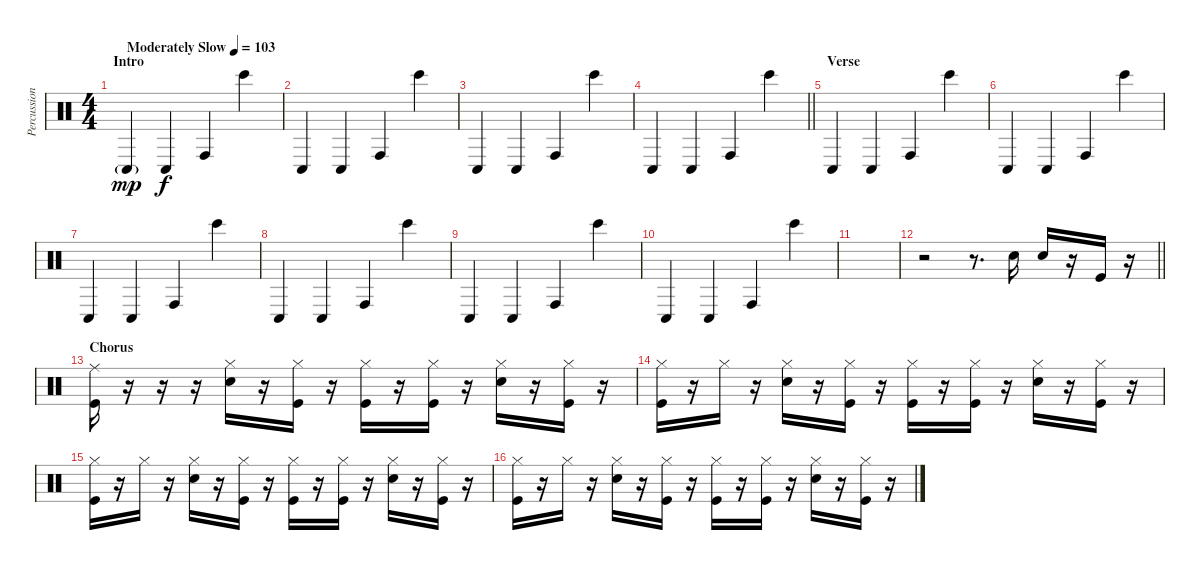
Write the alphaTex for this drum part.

\track ("Percussion" "Percussion") {instrument percussion}
\staff {score}
\articulation defaults
\ts (4 4)
\section ("" "Intro")
\tempo (103 "Moderately Slow")
\clef neutral
\ks c "Conga low (hit)"{g}.4{dy mp} "Conga low (hit)".4{dy f} "Conga high (hit)".4 "Bongo High (hit)".4
|
"Conga low (hit)".4 "Conga low (hit)".4 "Conga high (hit)".4 "Bongo High (hit)".4 |
"Conga low (hit)".4 "Conga low (hit)".4 "Conga high (hit)".4 "Bongo High (hit)".4 |
\barLineRight lightlight "Conga low (hit)".4 "Conga low (hit)".4 "Conga high (hit)".4 "Bongo High (hit)".4
|
\section ("" "Verse")
"Conga low (hit)".4 "Conga low (hit)".4 "Conga high (hit)".4 "Bongo High (hit)".4 |
"Conga low (hit)".4 "Conga low (hit)".4 "Conga high (hit)".4 "Bongo High (hit)".4 |
"Conga low (hit)".4 "Conga low (hit)".4 "Conga high (hit)".4 "Bongo High (hit)".4 |
"Conga low (hit)".4 "Conga low (hit)".4 "Conga high (hit)".4 "Bongo High (hit)".4 |
"Conga low (hit)".4 "Conga low (hit)".4 "Conga high (hit)".4 "Bongo High (hit)".4 |
"Conga low (hit)".4 "Conga low (hit)".4 "Conga high (hit)".4 "Bongo High (hit)".4 |
|
\barLineRight lightlight
r.2 r.8{d} "Snare (hit) 2".16 "Snare (hit) 2".16 r.16 "Kick (hit)".16 r.16 |
\section ("" "Chorus")
("Ride (middle)" "Kick (hit)").16 r.16 r.16 r.16 ("Hi-Hat (closed)" "Snare (hit) 2").16 r.16 ("Hi-Hat (closed)" "Kick (hit)").16 r.16 ("Hi-Hat (closed)" "Kick (hit)").16 r.16 ("Hi-Hat (closed)" "Kick (hit)").16 r.16 ("Hi-Hat (closed)" "Snare (hit) 2").16 r.16 ("Hi-Hat (closed)" "Kick (hit)").16 r.16 |
("Hi-Hat (closed)" "Kick (hit)").16 r.16 "Hi-Hat (closed)".16 r.16 ("Hi-Hat (closed)" "Snare (hit) 2").16 r.16 ("Hi-Hat (closed)" "Kick (hit)").16 r.16 ("Hi-Hat (closed)" "Kick (hit)").16 r.16 ("Hi-Hat (closed)" "Kick (hit)").16 r.16 ("Hi-Hat (closed)" "Snare (hit) 2").16 r.16 ("Hi-Hat (closed)" "Kick (hit)").16 r.16 |
("Hi-Hat (closed)" "Kick (hit)").16 r.16 "Hi-Hat (closed)".16 r.16 ("Hi-Hat (closed)" "Snare (hit) 2").16 r.16 ("Hi-Hat (closed)" "Kick (hit)").16 r.16 ("Hi-Hat (closed)" "Kick (hit)").16 r.16 ("Hi-Hat (closed)" "Kick (hit)").16 r.16 ("Hi-Hat (closed)" "Snare (hit) 2").16 r.16 ("Hi-Hat (closed)" "Kick (hit)").16 r.16 |
("Hi-Hat (closed)" "Kick (hit)").16 r.16 "Hi-Hat (closed)".16 r.16 ("Hi-Hat (closed)" "Snare (hit) 2").16 r.16 ("Hi-Hat (closed)" "Kick (hit)").16 r.16 ("Hi-Hat (closed)" "Kick (hit)").16 r.16 ("Hi-Hat (closed)" "Kick (hit)").16 r.16 ("Hi-Hat (closed)" "Snare (hit) 2").16 r.16 ("Hi-Hat (closed)" "Kick (hit)").16 r.16
